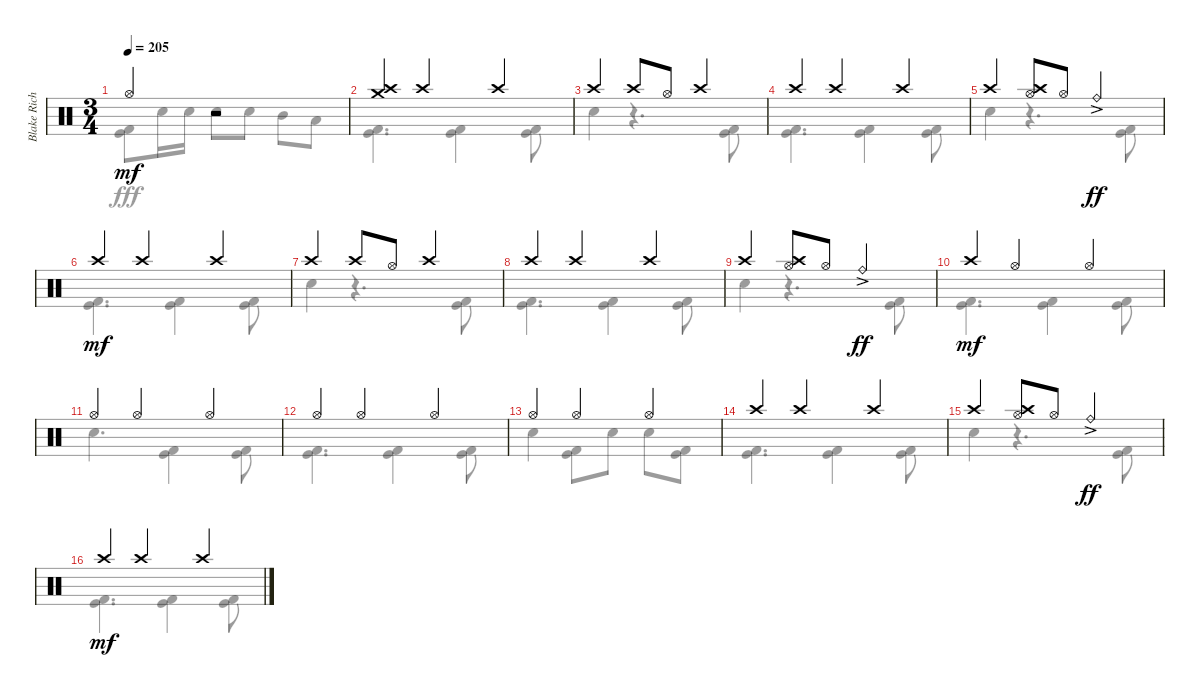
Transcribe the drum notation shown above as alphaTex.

\track ("Blake Richardson Drums" "Blake Rich") {instrument percussion}
\staff {score}
\articulation defaults
\voice
\ts (3 4)
\tempo 205
\clef neutral
\ks c "Hi-Hat (open)".4{dy mf}
r.2 |
("Crash high (hit)" "Crash medium (hit)").4 "Crash high (hit)".4 "Crash high (hit)".4 |
"Crash high (hit)".4 "Crash high (hit)".8 "Hi-Hat (open)".8 "Crash high (hit)".4 |
"Crash high (hit)".4 "Crash high (hit)".4 "Crash high (hit)".4 |
"Crash high (hit)".4 ("Crash high (hit)" "Hi-Hat (open)").8 "Hi-Hat (open)".8 "Ride (bell)"{ac}.4{dy ff} |
"Crash high (hit)".4{dy mf} "Crash high (hit)".4 "Crash high (hit)".4 |
"Crash high (hit)".4 "Crash high (hit)".8 "Hi-Hat (open)".8 "Crash high (hit)".4 |
"Crash high (hit)".4 "Crash high (hit)".4 "Crash high (hit)".4 |
"Crash high (hit)".4 ("Crash high (hit)" "Hi-Hat (open)").8 "Hi-Hat (open)".8 "Ride (bell)"{ac}.4{dy ff} |
"Crash high (hit)".4{dy mf} "Hi-Hat (open)".4 "Hi-Hat (open)".4 |
"Hi-Hat (open)".4 "Hi-Hat (open)".4 "Hi-Hat (open)".4 |
"Hi-Hat (open)".4 "Hi-Hat (open)".4 "Hi-Hat (open)".4 |
"Hi-Hat (open)".4 "Hi-Hat (open)".4 "Hi-Hat (open)".4 |
"Crash high (hit)".4 "Crash high (hit)".4 "Crash high (hit)".4 |
"Crash high (hit)".4 ("Crash high (hit)" "Hi-Hat (open)").8 "Hi-Hat (open)".8 "Ride (bell)"{ac}.4{dy ff} |
"Crash high (hit)".4{dy mf} "Crash high (hit)".4 "Crash high (hit)".4
\voice
\clef neutral
\ottava regular
\simile none
\ks c
("Kick (hit)" "Kick (hit) 2").8{dy fff} "Electric Snare (hit)".16 "Electric Snare (hit)".16 "Electric Snare (hit)".8 "Electric Snare (hit)".8 "Mid Tom (hit)".8 "Low Tom (hit)".8 |
("Kick (hit)" "Kick (hit) 2").4{d} ("Kick (hit)" "Kick (hit) 2").4 ("Kick (hit)" "Kick (hit) 2").8 |
"Electric Snare (hit)".4 r.4{d} ("Kick (hit)" "Kick (hit) 2").8 |
("Kick (hit)" "Kick (hit) 2").4{d} ("Kick (hit)" "Kick (hit) 2").4 ("Kick (hit)" "Kick (hit) 2").8 |
"Electric Snare (hit)".4 r.4{d} ("Kick (hit)" "Kick (hit) 2").8 |
("Kick (hit)" "Kick (hit) 2").4{d} ("Kick (hit)" "Kick (hit) 2").4 ("Kick (hit)" "Kick (hit) 2").8 |
"Electric Snare (hit)".4 r.4{d} ("Kick (hit)" "Kick (hit) 2").8 |
("Kick (hit)" "Kick (hit) 2").4{d} ("Kick (hit)" "Kick (hit) 2").4 ("Kick (hit)" "Kick (hit) 2").8 |
"Electric Snare (hit)".4 r.4{d} ("Kick (hit)" "Kick (hit) 2").8 |
("Kick (hit)" "Kick (hit) 2").4{d} ("Kick (hit)" "Kick (hit) 2").4 ("Kick (hit)" "Kick (hit) 2").8 |
"Electric Snare (hit)".4{d} ("Kick (hit)" "Kick (hit) 2").4 ("Kick (hit)" "Kick (hit) 2").8 |
("Kick (hit)" "Kick (hit) 2").4{d} ("Kick (hit)" "Kick (hit) 2").4 ("Kick (hit)" "Kick (hit) 2").8 |
"Electric Snare (hit)".4 ("Kick (hit)" "Kick (hit) 2").8 "Electric Snare (hit)".8 "Electric Snare (hit)".8 ("Kick (hit)" "Kick (hit) 2").8 |
("Kick (hit)" "Kick (hit) 2").4{d} ("Kick (hit)" "Kick (hit) 2").4 ("Kick (hit)" "Kick (hit) 2").8 |
"Electric Snare (hit)".4 r.4{d} ("Kick (hit)" "Kick (hit) 2").8 |
("Kick (hit)" "Kick (hit) 2").4{d} ("Kick (hit)" "Kick (hit) 2").4 ("Kick (hit)" "Kick (hit) 2").8
